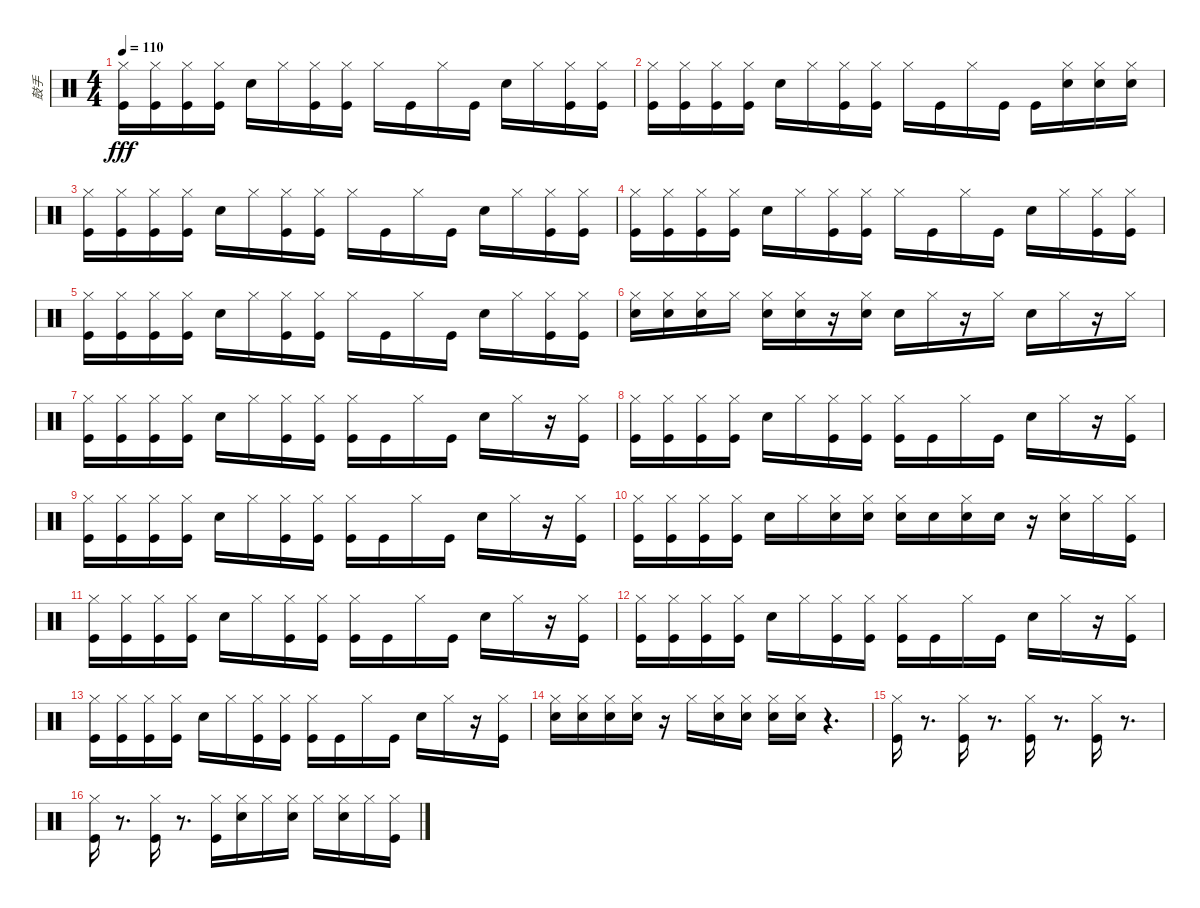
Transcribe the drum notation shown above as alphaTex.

\track ("鼓手" "鼓手") {instrument percussion}
\staff {score}
\articulation defaults
\ts (4 4)
\tempo 110
\clef neutral
\ks c
("Kick (hit)" "Hi-Hat (closed)").16{dy fff} ("Kick (hit)" "Hi-Hat (closed)").16 ("Kick (hit)" "Hi-Hat (closed)").16 ("Kick (hit)" "Hi-Hat (closed)").16 "Snare (hit) 2".16 "Hi-Hat (closed)".16 ("Kick (hit)" "Hi-Hat (closed)").16 ("Kick (hit)" "Hi-Hat (closed)").16 "Hi-Hat (closed)".16 "Kick (hit)".16 "Hi-Hat (closed)".16 "Kick (hit)".16 "Snare (hit) 2".16 "Hi-Hat (closed)".16 ("Kick (hit)" "Hi-Hat (closed)").16 ("Kick (hit)" "Hi-Hat (closed)").16 |
("Kick (hit)" "Hi-Hat (closed)").16 ("Kick (hit)" "Hi-Hat (closed)").16 ("Kick (hit)" "Hi-Hat (closed)").16 ("Kick (hit)" "Hi-Hat (closed)").16 "Snare (hit) 2".16 "Hi-Hat (closed)".16 ("Kick (hit)" "Hi-Hat (closed)").16 ("Kick (hit)" "Hi-Hat (closed)").16 "Hi-Hat (closed)".16 "Kick (hit)".16 "Hi-Hat (closed)".16 "Kick (hit)".16 "Kick (hit)".16 ("Snare (hit) 2" "Hi-Hat (closed)").16 ("Snare (hit) 2" "Hi-Hat (closed)").16 ("Snare (hit) 2" "Hi-Hat (closed)").16 |
("Kick (hit)" "Hi-Hat (closed)").16 ("Kick (hit)" "Hi-Hat (closed)").16 ("Kick (hit)" "Hi-Hat (closed)").16 ("Kick (hit)" "Hi-Hat (closed)").16 "Snare (hit) 2".16 "Hi-Hat (closed)".16 ("Kick (hit)" "Hi-Hat (closed)").16 ("Kick (hit)" "Hi-Hat (closed)").16 "Hi-Hat (closed)".16 "Kick (hit)".16 "Hi-Hat (closed)".16 "Kick (hit)".16 "Snare (hit) 2".16 "Hi-Hat (closed)".16 ("Kick (hit)" "Hi-Hat (closed)").16 ("Kick (hit)" "Hi-Hat (closed)").16 |
("Kick (hit)" "Hi-Hat (closed)").16 ("Kick (hit)" "Hi-Hat (closed)").16 ("Kick (hit)" "Hi-Hat (closed)").16 ("Kick (hit)" "Hi-Hat (closed)").16 "Snare (hit) 2".16 "Hi-Hat (closed)".16 ("Kick (hit)" "Hi-Hat (closed)").16 ("Kick (hit)" "Hi-Hat (closed)").16 "Hi-Hat (closed)".16 "Kick (hit)".16 "Hi-Hat (closed)".16 "Kick (hit)".16 "Snare (hit) 2".16 "Hi-Hat (closed)".16 ("Kick (hit)" "Hi-Hat (closed)").16 ("Kick (hit)" "Hi-Hat (closed)").16 |
("Kick (hit)" "Hi-Hat (closed)").16 ("Kick (hit)" "Hi-Hat (closed)").16 ("Kick (hit)" "Hi-Hat (closed)").16 ("Kick (hit)" "Hi-Hat (closed)").16 "Snare (hit) 2".16 "Hi-Hat (closed)".16 ("Kick (hit)" "Hi-Hat (closed)").16 ("Kick (hit)" "Hi-Hat (closed)").16 "Hi-Hat (closed)".16 "Kick (hit)".16 "Hi-Hat (closed)".16 "Kick (hit)".16 "Snare (hit) 2".16 "Hi-Hat (closed)".16 ("Kick (hit)" "Hi-Hat (closed)").16 ("Kick (hit)" "Hi-Hat (closed)").16 |
("Snare (hit) 2" "Hi-Hat (closed)").16 ("Snare (hit) 2" "Hi-Hat (closed)").16 ("Snare (hit) 2" "Hi-Hat (closed)").16 "Hi-Hat (closed)".16 ("Snare (hit) 2" "Hi-Hat (closed)").16 ("Snare (hit) 2" "Hi-Hat (closed)").16 r.16 ("Snare (hit) 2" "Hi-Hat (closed)").16 "Snare (hit) 2".16 "Hi-Hat (closed)".16 r.16 "Hi-Hat (closed)".16 "Snare (hit) 2".16 "Hi-Hat (closed)".16 r.16 "Hi-Hat (closed)".16 |
("Kick (hit)" "Hi-Hat (closed)").16 ("Kick (hit)" "Hi-Hat (closed)").16 ("Kick (hit)" "Hi-Hat (closed)").16 ("Kick (hit)" "Hi-Hat (closed)").16 "Snare (hit) 2".16 "Hi-Hat (closed)".16 ("Kick (hit)" "Hi-Hat (closed)").16 ("Kick (hit)" "Hi-Hat (closed)").16 ("Kick (hit)" "Hi-Hat (closed)").16 "Kick (hit)".16 "Hi-Hat (closed)".16 "Kick (hit)".16 "Snare (hit) 2".16 "Hi-Hat (closed)".16 r.16 ("Kick (hit)" "Hi-Hat (closed)").16 |
("Kick (hit)" "Hi-Hat (closed)").16 ("Kick (hit)" "Hi-Hat (closed)").16 ("Kick (hit)" "Hi-Hat (closed)").16 ("Kick (hit)" "Hi-Hat (closed)").16 "Snare (hit) 2".16 "Hi-Hat (closed)".16 ("Kick (hit)" "Hi-Hat (closed)").16 ("Kick (hit)" "Hi-Hat (closed)").16 ("Kick (hit)" "Hi-Hat (closed)").16 "Kick (hit)".16 "Hi-Hat (closed)".16 "Kick (hit)".16 "Snare (hit) 2".16 "Hi-Hat (closed)".16 r.16 ("Kick (hit)" "Hi-Hat (closed)").16 |
("Kick (hit)" "Hi-Hat (closed)").16 ("Kick (hit)" "Hi-Hat (closed)").16 ("Kick (hit)" "Hi-Hat (closed)").16 ("Kick (hit)" "Hi-Hat (closed)").16 "Snare (hit) 2".16 "Hi-Hat (closed)".16 ("Kick (hit)" "Hi-Hat (closed)").16 ("Kick (hit)" "Hi-Hat (closed)").16 ("Kick (hit)" "Hi-Hat (closed)").16 "Kick (hit)".16 "Hi-Hat (closed)".16 "Kick (hit)".16 "Snare (hit) 2".16 "Hi-Hat (closed)".16 r.16 ("Kick (hit)" "Hi-Hat (closed)").16 |
("Kick (hit)" "Hi-Hat (closed)").16 ("Kick (hit)" "Hi-Hat (closed)").16 ("Kick (hit)" "Hi-Hat (closed)").16 ("Kick (hit)" "Hi-Hat (closed)").16 "Snare (hit) 2".16 "Hi-Hat (closed)".16 ("Snare (hit) 2" "Hi-Hat (closed)").16 ("Snare (hit) 2" "Hi-Hat (closed)").16 ("Snare (hit) 2" "Hi-Hat (closed)").16 "Snare (hit) 2".16 ("Snare (hit) 2" "Hi-Hat (closed)").16 "Snare (hit) 2".16 r.16 ("Snare (hit) 2" "Hi-Hat (closed)").16 "Hi-Hat (closed)".16 ("Kick (hit)" "Hi-Hat (closed)").16 |
("Kick (hit)" "Hi-Hat (closed)").16 ("Kick (hit)" "Hi-Hat (closed)").16 ("Kick (hit)" "Hi-Hat (closed)").16 ("Kick (hit)" "Hi-Hat (closed)").16 "Snare (hit) 2".16 "Hi-Hat (closed)".16 ("Kick (hit)" "Hi-Hat (closed)").16 ("Kick (hit)" "Hi-Hat (closed)").16 ("Kick (hit)" "Hi-Hat (closed)").16 "Kick (hit)".16 "Hi-Hat (closed)".16 "Kick (hit)".16 "Snare (hit) 2".16 "Hi-Hat (closed)".16 r.16 ("Kick (hit)" "Hi-Hat (closed)").16 |
("Kick (hit)" "Hi-Hat (closed)").16 ("Kick (hit)" "Hi-Hat (closed)").16 ("Kick (hit)" "Hi-Hat (closed)").16 ("Kick (hit)" "Hi-Hat (closed)").16 "Snare (hit) 2".16 "Hi-Hat (closed)".16 ("Kick (hit)" "Hi-Hat (closed)").16 ("Kick (hit)" "Hi-Hat (closed)").16 ("Kick (hit)" "Hi-Hat (closed)").16 "Kick (hit)".16 "Hi-Hat (closed)".16 "Kick (hit)".16 "Snare (hit) 2".16 "Hi-Hat (closed)".16 r.16 ("Kick (hit)" "Hi-Hat (closed)").16 |
("Kick (hit)" "Hi-Hat (closed)").16 ("Kick (hit)" "Hi-Hat (closed)").16 ("Kick (hit)" "Hi-Hat (closed)").16 ("Kick (hit)" "Hi-Hat (closed)").16 "Snare (hit) 2".16 "Hi-Hat (closed)".16 ("Kick (hit)" "Hi-Hat (closed)").16 ("Kick (hit)" "Hi-Hat (closed)").16 ("Kick (hit)" "Hi-Hat (closed)").16 "Kick (hit)".16 "Hi-Hat (closed)".16 "Kick (hit)".16 "Snare (hit) 2".16 "Hi-Hat (closed)".16 r.16 ("Kick (hit)" "Hi-Hat (closed)").16 |
("Snare (hit) 2" "Hi-Hat (closed)").16 ("Snare (hit) 2" "Hi-Hat (closed)").16 ("Snare (hit) 2" "Hi-Hat (closed)").16 ("Snare (hit) 2" "Hi-Hat (closed)").16 r.16 "Hi-Hat (closed)".16 ("Snare (hit) 2" "Hi-Hat (closed)").16 ("Snare (hit) 2" "Hi-Hat (closed)").16 ("Snare (hit) 2" "Hi-Hat (closed)").16 ("Snare (hit) 2" "Hi-Hat (closed)").16 r.4{d} |
("Kick (hit)" "Hi-Hat (closed)").16 r.8{d} ("Kick (hit)" "Hi-Hat (closed)").16 r.8{d} ("Kick (hit)" "Hi-Hat (closed)").16 r.8{d} ("Kick (hit)" "Hi-Hat (closed)").16 r.8{d} |
("Kick (hit)" "Hi-Hat (closed)").16 r.8{d} ("Kick (hit)" "Hi-Hat (closed)").16 r.8{d} ("Kick (hit)" "Hi-Hat (closed)").16 ("Snare (hit) 2" "Hi-Hat (closed)").16 "Hi-Hat (closed)".16 ("Snare (hit) 2" "Hi-Hat (closed)").16 "Hi-Hat (closed)".16 ("Snare (hit) 2" "Hi-Hat (closed)").16 "Hi-Hat (closed)".16 ("Kick (hit)" "Hi-Hat (closed)").16
